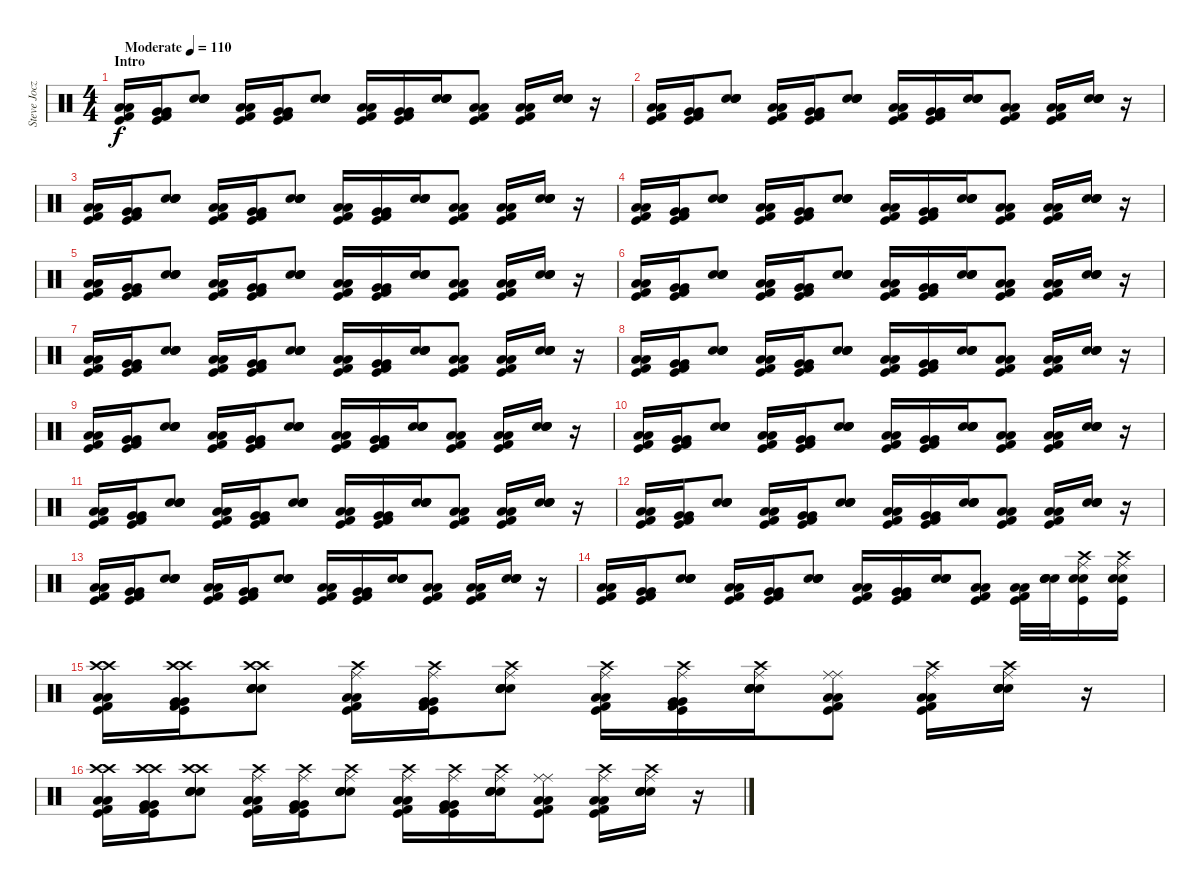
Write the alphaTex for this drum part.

\track ("Steve Jocz" "Steve Jocz") {instrument percussion}
\staff {score}
\articulation defaults
\ts (4 4)
\section ("" "Intro")
\tempo (110 "Moderate")
\clef neutral
\ks c
("Low Floor Tom (hit)" "Low Floor Tom (hit)" "Kick (hit)" "Kick (hit) 2").16{dy f} ("Very Low Tom (hit)" "Very Low Tom (hit)" "Kick (hit)" "Kick (hit) 2").16 ("Snare (hit) 2" "Snare (hit) 2" "Electric Snare (hit)" "Electric Snare (hit)").8 ("Low Floor Tom (hit)" "Low Floor Tom (hit)" "Kick (hit)" "Kick (hit) 2").16 ("Very Low Tom (hit)" "Very Low Tom (hit)" "Kick (hit)" "Kick (hit) 2").16 ("Snare (hit) 2" "Snare (hit) 2" "Electric Snare (hit)" "Electric Snare (hit)").8 ("Low Floor Tom (hit)" "Low Floor Tom (hit)" "Kick (hit)" "Kick (hit) 2").16 ("Very Low Tom (hit)" "Very Low Tom (hit)" "Kick (hit)" "Kick (hit) 2").16 ("Snare (hit) 2" "Snare (hit) 2" "Electric Snare (hit)" "Electric Snare (hit)").16 ("Low Floor Tom (hit)" "Low Floor Tom (hit)" "Kick (hit)" "Kick (hit) 2").8 ("Low Floor Tom (hit)" "Low Floor Tom (hit)" "Kick (hit)" "Kick (hit) 2").16 ("Snare (hit) 2" "Snare (hit) 2" "Electric Snare (hit)" "Electric Snare (hit)").16 r.16 |
("Low Floor Tom (hit)" "Low Floor Tom (hit)" "Kick (hit)" "Kick (hit) 2").16 ("Very Low Tom (hit)" "Very Low Tom (hit)" "Kick (hit)" "Kick (hit) 2").16 ("Snare (hit) 2" "Snare (hit) 2" "Electric Snare (hit)" "Electric Snare (hit)").8 ("Low Floor Tom (hit)" "Low Floor Tom (hit)" "Kick (hit)" "Kick (hit) 2").16 ("Very Low Tom (hit)" "Very Low Tom (hit)" "Kick (hit)" "Kick (hit) 2").16 ("Snare (hit) 2" "Snare (hit) 2" "Electric Snare (hit)" "Electric Snare (hit)").8 ("Low Floor Tom (hit)" "Low Floor Tom (hit)" "Kick (hit)" "Kick (hit) 2").16 ("Very Low Tom (hit)" "Very Low Tom (hit)" "Kick (hit)" "Kick (hit) 2").16 ("Snare (hit) 2" "Snare (hit) 2" "Electric Snare (hit)" "Electric Snare (hit)").16 ("Low Floor Tom (hit)" "Low Floor Tom (hit)" "Kick (hit)" "Kick (hit) 2").8 ("Low Floor Tom (hit)" "Low Floor Tom (hit)" "Kick (hit)" "Kick (hit) 2").16 ("Snare (hit) 2" "Snare (hit) 2" "Electric Snare (hit)" "Electric Snare (hit)").16 r.16 |
("Low Floor Tom (hit)" "Low Floor Tom (hit)" "Kick (hit)" "Kick (hit) 2").16 ("Very Low Tom (hit)" "Very Low Tom (hit)" "Kick (hit)" "Kick (hit) 2").16 ("Snare (hit) 2" "Snare (hit) 2" "Electric Snare (hit)" "Electric Snare (hit)").8 ("Low Floor Tom (hit)" "Low Floor Tom (hit)" "Kick (hit)" "Kick (hit) 2").16 ("Very Low Tom (hit)" "Very Low Tom (hit)" "Kick (hit)" "Kick (hit) 2").16 ("Snare (hit) 2" "Snare (hit) 2" "Electric Snare (hit)" "Electric Snare (hit)").8 ("Low Floor Tom (hit)" "Low Floor Tom (hit)" "Kick (hit)" "Kick (hit) 2").16 ("Very Low Tom (hit)" "Very Low Tom (hit)" "Kick (hit)" "Kick (hit) 2").16 ("Snare (hit) 2" "Snare (hit) 2" "Electric Snare (hit)" "Electric Snare (hit)").16 ("Low Floor Tom (hit)" "Low Floor Tom (hit)" "Kick (hit)" "Kick (hit) 2").8 ("Low Floor Tom (hit)" "Low Floor Tom (hit)" "Kick (hit)" "Kick (hit) 2").16 ("Snare (hit) 2" "Snare (hit) 2" "Electric Snare (hit)" "Electric Snare (hit)").16 r.16 |
("Low Floor Tom (hit)" "Low Floor Tom (hit)" "Kick (hit)" "Kick (hit) 2").16 ("Very Low Tom (hit)" "Very Low Tom (hit)" "Kick (hit)" "Kick (hit) 2").16 ("Snare (hit) 2" "Snare (hit) 2" "Electric Snare (hit)" "Electric Snare (hit)").8 ("Low Floor Tom (hit)" "Low Floor Tom (hit)" "Kick (hit)" "Kick (hit) 2").16 ("Very Low Tom (hit)" "Very Low Tom (hit)" "Kick (hit)" "Kick (hit) 2").16 ("Snare (hit) 2" "Snare (hit) 2" "Electric Snare (hit)" "Electric Snare (hit)").8 ("Low Floor Tom (hit)" "Low Floor Tom (hit)" "Kick (hit)" "Kick (hit) 2").16 ("Very Low Tom (hit)" "Very Low Tom (hit)" "Kick (hit)" "Kick (hit) 2").16 ("Snare (hit) 2" "Snare (hit) 2" "Electric Snare (hit)" "Electric Snare (hit)").16 ("Low Floor Tom (hit)" "Low Floor Tom (hit)" "Kick (hit)" "Kick (hit) 2").8 ("Low Floor Tom (hit)" "Low Floor Tom (hit)" "Kick (hit)" "Kick (hit) 2").16 ("Snare (hit) 2" "Snare (hit) 2" "Electric Snare (hit)" "Electric Snare (hit)").16 r.16 |
("Low Floor Tom (hit)" "Low Floor Tom (hit)" "Kick (hit)" "Kick (hit) 2").16 ("Very Low Tom (hit)" "Very Low Tom (hit)" "Kick (hit)" "Kick (hit) 2").16 ("Snare (hit) 2" "Snare (hit) 2" "Electric Snare (hit)" "Electric Snare (hit)").8 ("Low Floor Tom (hit)" "Low Floor Tom (hit)" "Kick (hit)" "Kick (hit) 2").16 ("Very Low Tom (hit)" "Very Low Tom (hit)" "Kick (hit)" "Kick (hit) 2").16 ("Snare (hit) 2" "Snare (hit) 2" "Electric Snare (hit)" "Electric Snare (hit)").8 ("Low Floor Tom (hit)" "Low Floor Tom (hit)" "Kick (hit)" "Kick (hit) 2").16 ("Very Low Tom (hit)" "Very Low Tom (hit)" "Kick (hit)" "Kick (hit) 2").16 ("Snare (hit) 2" "Snare (hit) 2" "Electric Snare (hit)" "Electric Snare (hit)").16 ("Low Floor Tom (hit)" "Low Floor Tom (hit)" "Kick (hit)" "Kick (hit) 2").8 ("Low Floor Tom (hit)" "Low Floor Tom (hit)" "Kick (hit)" "Kick (hit) 2").16 ("Snare (hit) 2" "Snare (hit) 2" "Electric Snare (hit)" "Electric Snare (hit)").16 r.16 |
("Low Floor Tom (hit)" "Low Floor Tom (hit)" "Kick (hit)" "Kick (hit) 2").16 ("Very Low Tom (hit)" "Very Low Tom (hit)" "Kick (hit)" "Kick (hit) 2").16 ("Snare (hit) 2" "Snare (hit) 2" "Electric Snare (hit)" "Electric Snare (hit)").8 ("Low Floor Tom (hit)" "Low Floor Tom (hit)" "Kick (hit)" "Kick (hit) 2").16 ("Very Low Tom (hit)" "Very Low Tom (hit)" "Kick (hit)" "Kick (hit) 2").16 ("Snare (hit) 2" "Snare (hit) 2" "Electric Snare (hit)" "Electric Snare (hit)").8 ("Low Floor Tom (hit)" "Low Floor Tom (hit)" "Kick (hit)" "Kick (hit) 2").16 ("Very Low Tom (hit)" "Very Low Tom (hit)" "Kick (hit)" "Kick (hit) 2").16 ("Snare (hit) 2" "Snare (hit) 2" "Electric Snare (hit)" "Electric Snare (hit)").16 ("Low Floor Tom (hit)" "Low Floor Tom (hit)" "Kick (hit)" "Kick (hit) 2").8 ("Low Floor Tom (hit)" "Low Floor Tom (hit)" "Kick (hit)" "Kick (hit) 2").16 ("Snare (hit) 2" "Snare (hit) 2" "Electric Snare (hit)" "Electric Snare (hit)").16 r.16 |
("Low Floor Tom (hit)" "Low Floor Tom (hit)" "Kick (hit)" "Kick (hit) 2").16 ("Very Low Tom (hit)" "Very Low Tom (hit)" "Kick (hit)" "Kick (hit) 2").16 ("Snare (hit) 2" "Snare (hit) 2" "Electric Snare (hit)" "Electric Snare (hit)").8 ("Low Floor Tom (hit)" "Low Floor Tom (hit)" "Kick (hit)" "Kick (hit) 2").16 ("Very Low Tom (hit)" "Very Low Tom (hit)" "Kick (hit)" "Kick (hit) 2").16 ("Snare (hit) 2" "Snare (hit) 2" "Electric Snare (hit)" "Electric Snare (hit)").8 ("Low Floor Tom (hit)" "Low Floor Tom (hit)" "Kick (hit)" "Kick (hit) 2").16 ("Very Low Tom (hit)" "Very Low Tom (hit)" "Kick (hit)" "Kick (hit) 2").16 ("Snare (hit) 2" "Snare (hit) 2" "Electric Snare (hit)" "Electric Snare (hit)").16 ("Low Floor Tom (hit)" "Low Floor Tom (hit)" "Kick (hit)" "Kick (hit) 2").8 ("Low Floor Tom (hit)" "Low Floor Tom (hit)" "Kick (hit)" "Kick (hit) 2").16 ("Snare (hit) 2" "Snare (hit) 2" "Electric Snare (hit)" "Electric Snare (hit)").16 r.16 |
("Low Floor Tom (hit)" "Low Floor Tom (hit)" "Kick (hit)" "Kick (hit) 2").16 ("Very Low Tom (hit)" "Very Low Tom (hit)" "Kick (hit)" "Kick (hit) 2").16 ("Snare (hit) 2" "Snare (hit) 2" "Electric Snare (hit)" "Electric Snare (hit)").8 ("Low Floor Tom (hit)" "Low Floor Tom (hit)" "Kick (hit)" "Kick (hit) 2").16 ("Very Low Tom (hit)" "Very Low Tom (hit)" "Kick (hit)" "Kick (hit) 2").16 ("Snare (hit) 2" "Snare (hit) 2" "Electric Snare (hit)" "Electric Snare (hit)").8 ("Low Floor Tom (hit)" "Low Floor Tom (hit)" "Kick (hit)" "Kick (hit) 2").16 ("Very Low Tom (hit)" "Very Low Tom (hit)" "Kick (hit)" "Kick (hit) 2").16 ("Snare (hit) 2" "Snare (hit) 2" "Electric Snare (hit)" "Electric Snare (hit)").16 ("Low Floor Tom (hit)" "Low Floor Tom (hit)" "Kick (hit)" "Kick (hit) 2").8 ("Low Floor Tom (hit)" "Low Floor Tom (hit)" "Kick (hit)" "Kick (hit) 2").16 ("Snare (hit) 2" "Snare (hit) 2" "Electric Snare (hit)" "Electric Snare (hit)").16 r.16 |
("Low Floor Tom (hit)" "Low Floor Tom (hit)" "Kick (hit)" "Kick (hit) 2").16 ("Very Low Tom (hit)" "Very Low Tom (hit)" "Kick (hit)" "Kick (hit) 2").16 ("Snare (hit) 2" "Snare (hit) 2" "Electric Snare (hit)" "Electric Snare (hit)").8 ("Low Floor Tom (hit)" "Low Floor Tom (hit)" "Kick (hit)" "Kick (hit) 2").16 ("Very Low Tom (hit)" "Very Low Tom (hit)" "Kick (hit)" "Kick (hit) 2").16 ("Snare (hit) 2" "Snare (hit) 2" "Electric Snare (hit)" "Electric Snare (hit)").8 ("Low Floor Tom (hit)" "Low Floor Tom (hit)" "Kick (hit)" "Kick (hit) 2").16 ("Very Low Tom (hit)" "Very Low Tom (hit)" "Kick (hit)" "Kick (hit) 2").16 ("Snare (hit) 2" "Snare (hit) 2" "Electric Snare (hit)" "Electric Snare (hit)").16 ("Low Floor Tom (hit)" "Low Floor Tom (hit)" "Kick (hit)" "Kick (hit) 2").8 ("Low Floor Tom (hit)" "Low Floor Tom (hit)" "Kick (hit)" "Kick (hit) 2").16 ("Snare (hit) 2" "Snare (hit) 2" "Electric Snare (hit)" "Electric Snare (hit)").16 r.16 |
("Low Floor Tom (hit)" "Low Floor Tom (hit)" "Kick (hit)" "Kick (hit) 2").16 ("Very Low Tom (hit)" "Very Low Tom (hit)" "Kick (hit)" "Kick (hit) 2").16 ("Snare (hit) 2" "Snare (hit) 2" "Electric Snare (hit)" "Electric Snare (hit)").8 ("Low Floor Tom (hit)" "Low Floor Tom (hit)" "Kick (hit)" "Kick (hit) 2").16 ("Very Low Tom (hit)" "Very Low Tom (hit)" "Kick (hit)" "Kick (hit) 2").16 ("Snare (hit) 2" "Snare (hit) 2" "Electric Snare (hit)" "Electric Snare (hit)").8 ("Low Floor Tom (hit)" "Low Floor Tom (hit)" "Kick (hit)" "Kick (hit) 2").16 ("Very Low Tom (hit)" "Very Low Tom (hit)" "Kick (hit)" "Kick (hit) 2").16 ("Snare (hit) 2" "Snare (hit) 2" "Electric Snare (hit)" "Electric Snare (hit)").16 ("Low Floor Tom (hit)" "Low Floor Tom (hit)" "Kick (hit)" "Kick (hit) 2").8 ("Low Floor Tom (hit)" "Low Floor Tom (hit)" "Kick (hit)" "Kick (hit) 2").16 ("Snare (hit) 2" "Snare (hit) 2" "Electric Snare (hit)" "Electric Snare (hit)").16 r.16 |
("Low Floor Tom (hit)" "Low Floor Tom (hit)" "Kick (hit)" "Kick (hit) 2").16 ("Very Low Tom (hit)" "Very Low Tom (hit)" "Kick (hit)" "Kick (hit) 2").16 ("Snare (hit) 2" "Snare (hit) 2" "Electric Snare (hit)" "Electric Snare (hit)").8 ("Low Floor Tom (hit)" "Low Floor Tom (hit)" "Kick (hit)" "Kick (hit) 2").16 ("Very Low Tom (hit)" "Very Low Tom (hit)" "Kick (hit)" "Kick (hit) 2").16 ("Snare (hit) 2" "Snare (hit) 2" "Electric Snare (hit)" "Electric Snare (hit)").8 ("Low Floor Tom (hit)" "Low Floor Tom (hit)" "Kick (hit)" "Kick (hit) 2").16 ("Very Low Tom (hit)" "Very Low Tom (hit)" "Kick (hit)" "Kick (hit) 2").16 ("Snare (hit) 2" "Snare (hit) 2" "Electric Snare (hit)" "Electric Snare (hit)").16 ("Low Floor Tom (hit)" "Low Floor Tom (hit)" "Kick (hit)" "Kick (hit) 2").8 ("Low Floor Tom (hit)" "Low Floor Tom (hit)" "Kick (hit)" "Kick (hit) 2").16 ("Snare (hit) 2" "Snare (hit) 2" "Electric Snare (hit)" "Electric Snare (hit)").16 r.16 |
("Low Floor Tom (hit)" "Low Floor Tom (hit)" "Kick (hit)" "Kick (hit) 2").16 ("Very Low Tom (hit)" "Very Low Tom (hit)" "Kick (hit)" "Kick (hit) 2").16 ("Snare (hit) 2" "Snare (hit) 2" "Electric Snare (hit)" "Electric Snare (hit)").8 ("Low Floor Tom (hit)" "Low Floor Tom (hit)" "Kick (hit)" "Kick (hit) 2").16 ("Very Low Tom (hit)" "Very Low Tom (hit)" "Kick (hit)" "Kick (hit) 2").16 ("Snare (hit) 2" "Snare (hit) 2" "Electric Snare (hit)" "Electric Snare (hit)").8 ("Low Floor Tom (hit)" "Low Floor Tom (hit)" "Kick (hit)" "Kick (hit) 2").16 ("Very Low Tom (hit)" "Very Low Tom (hit)" "Kick (hit)" "Kick (hit) 2").16 ("Snare (hit) 2" "Snare (hit) 2" "Electric Snare (hit)" "Electric Snare (hit)").16 ("Low Floor Tom (hit)" "Low Floor Tom (hit)" "Kick (hit)" "Kick (hit) 2").8 ("Low Floor Tom (hit)" "Low Floor Tom (hit)" "Kick (hit)" "Kick (hit) 2").16 ("Snare (hit) 2" "Snare (hit) 2" "Electric Snare (hit)" "Electric Snare (hit)").16 r.16 |
("Low Floor Tom (hit)" "Low Floor Tom (hit)" "Kick (hit)" "Kick (hit) 2").16 ("Very Low Tom (hit)" "Very Low Tom (hit)" "Kick (hit)" "Kick (hit) 2").16 ("Snare (hit) 2" "Snare (hit) 2" "Electric Snare (hit)" "Electric Snare (hit)").8 ("Low Floor Tom (hit)" "Low Floor Tom (hit)" "Kick (hit)" "Kick (hit) 2").16 ("Very Low Tom (hit)" "Very Low Tom (hit)" "Kick (hit)" "Kick (hit) 2").16 ("Snare (hit) 2" "Snare (hit) 2" "Electric Snare (hit)" "Electric Snare (hit)").8 ("Low Floor Tom (hit)" "Low Floor Tom (hit)" "Kick (hit)" "Kick (hit) 2").16 ("Very Low Tom (hit)" "Very Low Tom (hit)" "Kick (hit)" "Kick (hit) 2").16 ("Snare (hit) 2" "Snare (hit) 2" "Electric Snare (hit)" "Electric Snare (hit)").16 ("Low Floor Tom (hit)" "Low Floor Tom (hit)" "Kick (hit)" "Kick (hit) 2").8 ("Low Floor Tom (hit)" "Low Floor Tom (hit)" "Kick (hit)" "Kick (hit) 2").16 ("Snare (hit) 2" "Snare (hit) 2" "Electric Snare (hit)" "Electric Snare (hit)").16 r.16 |
("Low Floor Tom (hit)" "Low Floor Tom (hit)" "Kick (hit)" "Kick (hit) 2").16 ("Very Low Tom (hit)" "Very Low Tom (hit)" "Kick (hit)" "Kick (hit) 2").16 ("Snare (hit) 2" "Snare (hit) 2" "Electric Snare (hit)" "Electric Snare (hit)").8 ("Low Floor Tom (hit)" "Low Floor Tom (hit)" "Kick (hit)" "Kick (hit) 2").16 ("Very Low Tom (hit)" "Very Low Tom (hit)" "Kick (hit)" "Kick (hit) 2").16 ("Snare (hit) 2" "Snare (hit) 2" "Electric Snare (hit)" "Electric Snare (hit)").8 ("Low Floor Tom (hit)" "Low Floor Tom (hit)" "Kick (hit)" "Kick (hit) 2").16 ("Very Low Tom (hit)" "Very Low Tom (hit)" "Kick (hit)" "Kick (hit) 2").16 ("Snare (hit) 2" "Snare (hit) 2" "Electric Snare (hit)" "Electric Snare (hit)").16 ("Low Floor Tom (hit)" "Low Floor Tom (hit)" "Kick (hit)" "Kick (hit) 2").8 ("Low Floor Tom (hit)" "Low Floor Tom (hit)" "Kick (hit)" "Kick (hit) 2").32 ("Snare (hit) 2" "Snare (hit) 2" "Electric Snare (hit)" "Electric Snare (hit)").32 ("Snare (hit) 2" "Kick (hit)" "Electric Snare (hit)" "Crash high (hit)" "Ride (middle)").16 ("Snare (hit) 2" "Kick (hit)" "Electric Snare (hit)" "Crash high (hit)" "Ride (middle)").16 |
("Low Floor Tom (hit)" "Crash high (hit)" "Low Floor Tom (hit)" "Kick (hit)" "Crash high (hit)" "Kick (hit) 2").16 ("Very Low Tom (hit)" "Crash high (hit)" "Very Low Tom (hit)" "Kick (hit)" "Crash high (hit)" "Kick (hit) 2").16 ("Snare (hit) 2" "Crash high (hit)" "Snare (hit) 2" "Electric Snare (hit)" "Crash high (hit)" "Electric Snare (hit)").8 ("Low Floor Tom (hit)" "Ride (middle)" "Low Floor Tom (hit)" "Kick (hit)" "Crash high (hit)" "Kick (hit) 2").16 ("Very Low Tom (hit)" "Ride (middle)" "Very Low Tom (hit)" "Kick (hit)" "Crash high (hit)" "Kick (hit) 2").16 ("Snare (hit) 2" "Ride (middle)" "Snare (hit) 2" "Electric Snare (hit)" "Crash high (hit)" "Electric Snare (hit)").8 ("Low Floor Tom (hit)" "Ride (middle)" "Low Floor Tom (hit)" "Kick (hit)" "Crash high (hit)" "Kick (hit) 2").16 ("Very Low Tom (hit)" "Ride (middle)" "Very Low Tom (hit)" "Kick (hit)" "Crash high (hit)" "Kick (hit) 2").16 ("Snare (hit) 2" "Ride (middle)" "Snare (hit) 2" "Electric Snare (hit)" "Crash high (hit)" "Electric Snare (hit)").16 ("Low Floor Tom (hit)" "Ride (middle)" "Low Floor Tom (hit)" "Kick (hit)" "Ride (middle)" "Kick (hit) 2").8 ("Low Floor Tom (hit)" "Ride (middle)" "Low Floor Tom (hit)" "Kick (hit)" "Crash high (hit)" "Kick (hit) 2").16 ("Snare (hit) 2" "Ride (middle)" "Snare (hit) 2" "Electric Snare (hit)" "Crash high (hit)" "Electric Snare (hit)").16 r.16 |
("Low Floor Tom (hit)" "Crash high (hit)" "Low Floor Tom (hit)" "Kick (hit)" "Crash high (hit)" "Kick (hit) 2").16 ("Very Low Tom (hit)" "Crash high (hit)" "Very Low Tom (hit)" "Kick (hit)" "Crash high (hit)" "Kick (hit) 2").16 ("Snare (hit) 2" "Crash high (hit)" "Snare (hit) 2" "Electric Snare (hit)" "Crash high (hit)" "Electric Snare (hit)").8 ("Low Floor Tom (hit)" "Ride (middle)" "Low Floor Tom (hit)" "Kick (hit)" "Crash high (hit)" "Kick (hit) 2").16 ("Very Low Tom (hit)" "Ride (middle)" "Very Low Tom (hit)" "Kick (hit)" "Crash high (hit)" "Kick (hit) 2").16 ("Snare (hit) 2" "Ride (middle)" "Snare (hit) 2" "Electric Snare (hit)" "Crash high (hit)" "Electric Snare (hit)").8 ("Low Floor Tom (hit)" "Ride (middle)" "Low Floor Tom (hit)" "Kick (hit)" "Crash high (hit)" "Kick (hit) 2").16 ("Very Low Tom (hit)" "Ride (middle)" "Very Low Tom (hit)" "Kick (hit)" "Crash high (hit)" "Kick (hit) 2").16 ("Snare (hit) 2" "Ride (middle)" "Snare (hit) 2" "Electric Snare (hit)" "Crash high (hit)" "Electric Snare (hit)").16 ("Low Floor Tom (hit)" "Ride (middle)" "Low Floor Tom (hit)" "Kick (hit)" "Ride (middle)" "Kick (hit) 2").8 ("Low Floor Tom (hit)" "Ride (middle)" "Low Floor Tom (hit)" "Kick (hit)" "Crash high (hit)" "Kick (hit) 2").16 ("Snare (hit) 2" "Ride (middle)" "Snare (hit) 2" "Electric Snare (hit)" "Crash high (hit)" "Electric Snare (hit)").16 r.16
